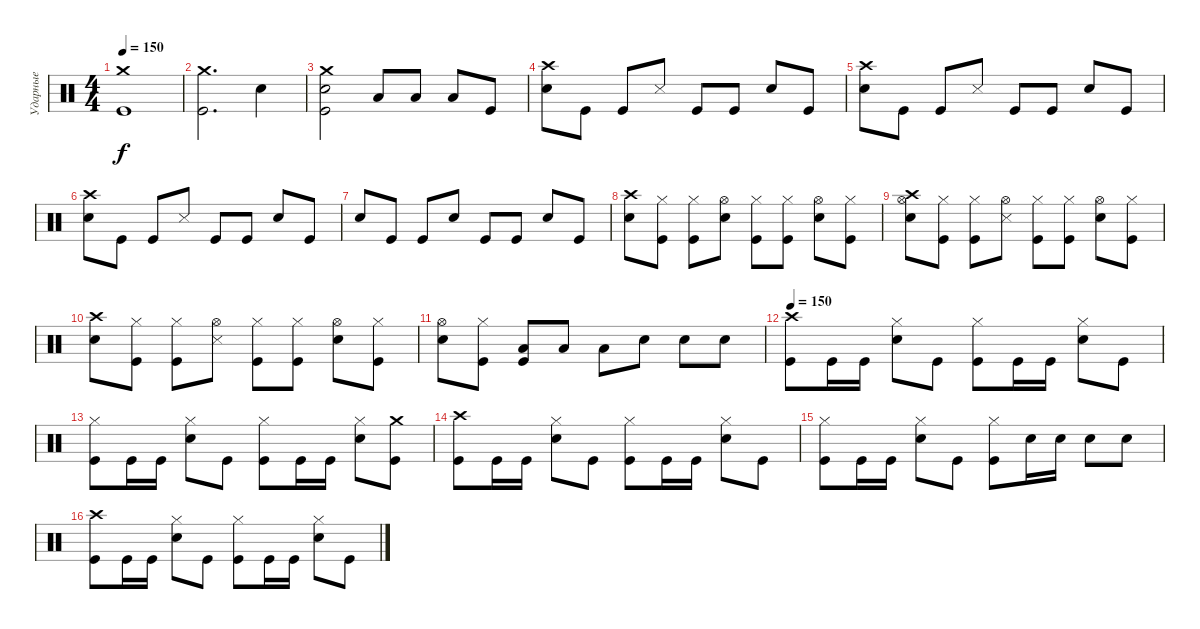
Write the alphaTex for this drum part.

\track ("Ударные" "Ударные") {instrument percussion}
\staff {score}
\articulation defaults
\ts (4 4)
\tempo 150
\clef neutral
\ks c
("Crash medium (hit)" "Kick (hit)").1{dy f} |
("Crash medium (hit)" "Kick (hit)").2{d} "Electric Snare (hit)".4 |
("Crash medium (hit)" "Electric Snare (hit)" "Kick (hit)").2 "Low Tom (hit)".8 "Low Tom (hit)".8 "Low Tom (hit)".8 "Kick (hit)".8 |
("Crash high (hit)" "Electric Snare (hit)").8 "Kick (hit)".8 "Kick (hit)".8 "Snare (side stick) 3".8 "Kick (hit)".8 "Kick (hit)".8 "Electric Snare (hit)".8 "Kick (hit)".8 |
("Crash high (hit)" "Electric Snare (hit)").8 "Kick (hit)".8 "Kick (hit)".8 "Snare (side stick) 3".8 "Kick (hit)".8 "Kick (hit)".8 "Electric Snare (hit)".8 "Kick (hit)".8 |
("Crash high (hit)" "Electric Snare (hit)").8 "Kick (hit)".8 "Kick (hit)".8 "Snare (side stick) 3".8 "Kick (hit)".8 "Kick (hit)".8 "Electric Snare (hit)".8 "Kick (hit)".8 |
"Electric Snare (hit)".8 "Kick (hit)".8 "Kick (hit)".8 "Electric Snare (hit)".8 "Kick (hit)".8 "Kick (hit)".8 "Electric Snare (hit)".8 "Kick (hit)".8 |
("Crash high (hit)" "Electric Snare (hit)").8 ("Hi-Hat (closed)" "Kick (hit)").8 ("Hi-Hat (closed)" "Kick (hit)").8 ("Hi-Hat (open)" "Electric Snare (hit)").8 ("Hi-Hat (closed)" "Kick (hit)").8 ("Hi-Hat (closed)" "Kick (hit)").8 ("Hi-Hat (open)" "Electric Snare (hit)").8 ("Hi-Hat (closed)" "Kick (hit)").8 |
("Crash high (hit)" "Hi-Hat (open)" "Electric Snare (hit)").8 ("Hi-Hat (closed)" "Kick (hit)").8 ("Hi-Hat (closed)" "Kick (hit)").8 ("Hi-Hat (open)" "Snare (side stick) 3").8 ("Hi-Hat (closed)" "Kick (hit)").8 ("Hi-Hat (closed)" "Kick (hit)").8 ("Hi-Hat (open)" "Electric Snare (hit)").8 ("Hi-Hat (closed)" "Kick (hit)").8 |
("Crash high (hit)" "Electric Snare (hit)").8 ("Hi-Hat (closed)" "Kick (hit)").8 ("Hi-Hat (closed)" "Kick (hit)").8 ("Hi-Hat (open)" "Snare (side stick) 3").8 ("Hi-Hat (closed)" "Kick (hit)").8 ("Hi-Hat (closed)" "Kick (hit)").8 ("Hi-Hat (open)" "Electric Snare (hit)").8 ("Hi-Hat (closed)" "Kick (hit)").8 |
("Hi-Hat (open)" "Electric Snare (hit)").8 ("Hi-Hat (closed)" "Kick (hit)").8 ("Low Tom (hit)" "Kick (hit)").8 "Low Tom (hit)".8 "Low Tom (hit)".8 "Electric Snare (hit)".8 "Electric Snare (hit)".8 "Electric Snare (hit)".8 |
\tempo 150
("Crash high (hit)" "Kick (hit)").8 "Kick (hit)".16 "Kick (hit)".16 ("Hi-Hat (closed)" "Electric Snare (hit)").8 "Kick (hit)".8 ("Hi-Hat (closed)" "Kick (hit)").8 "Kick (hit)".16 "Kick (hit)".16 ("Hi-Hat (closed)" "Electric Snare (hit)").8 "Kick (hit)".8 |
("Hi-Hat (closed)" "Kick (hit)").8 "Kick (hit)".16 "Kick (hit)".16 ("Hi-Hat (closed)" "Electric Snare (hit)").8 "Kick (hit)".8 ("Hi-Hat (closed)" "Kick (hit)").8 "Kick (hit)".16 "Kick (hit)".16 ("Hi-Hat (closed)" "Electric Snare (hit)").8 ("Crash medium (hit)" "Kick (hit)").8 |
("Crash high (hit)" "Kick (hit)").8 "Kick (hit)".16 "Kick (hit)".16 ("Hi-Hat (closed)" "Electric Snare (hit)").8 "Kick (hit)".8 ("Hi-Hat (closed)" "Kick (hit)").8 "Kick (hit)".16 "Kick (hit)".16 ("Hi-Hat (closed)" "Electric Snare (hit)").8 "Kick (hit)".8 |
("Hi-Hat (closed)" "Kick (hit)").8 "Kick (hit)".16 "Kick (hit)".16 ("Hi-Hat (closed)" "Electric Snare (hit)").8 "Kick (hit)".8 ("Hi-Hat (closed)" "Kick (hit)").8 "Electric Snare (hit)".16 "Electric Snare (hit)".16 "Electric Snare (hit)".8 "Electric Snare (hit)".8 |
("Crash high (hit)" "Kick (hit)").8 "Kick (hit)".16 "Kick (hit)".16 ("Hi-Hat (closed)" "Electric Snare (hit)").8 "Kick (hit)".8 ("Hi-Hat (closed)" "Kick (hit)").8 "Kick (hit)".16 "Kick (hit)".16 ("Hi-Hat (closed)" "Electric Snare (hit)").8 "Kick (hit)".8
